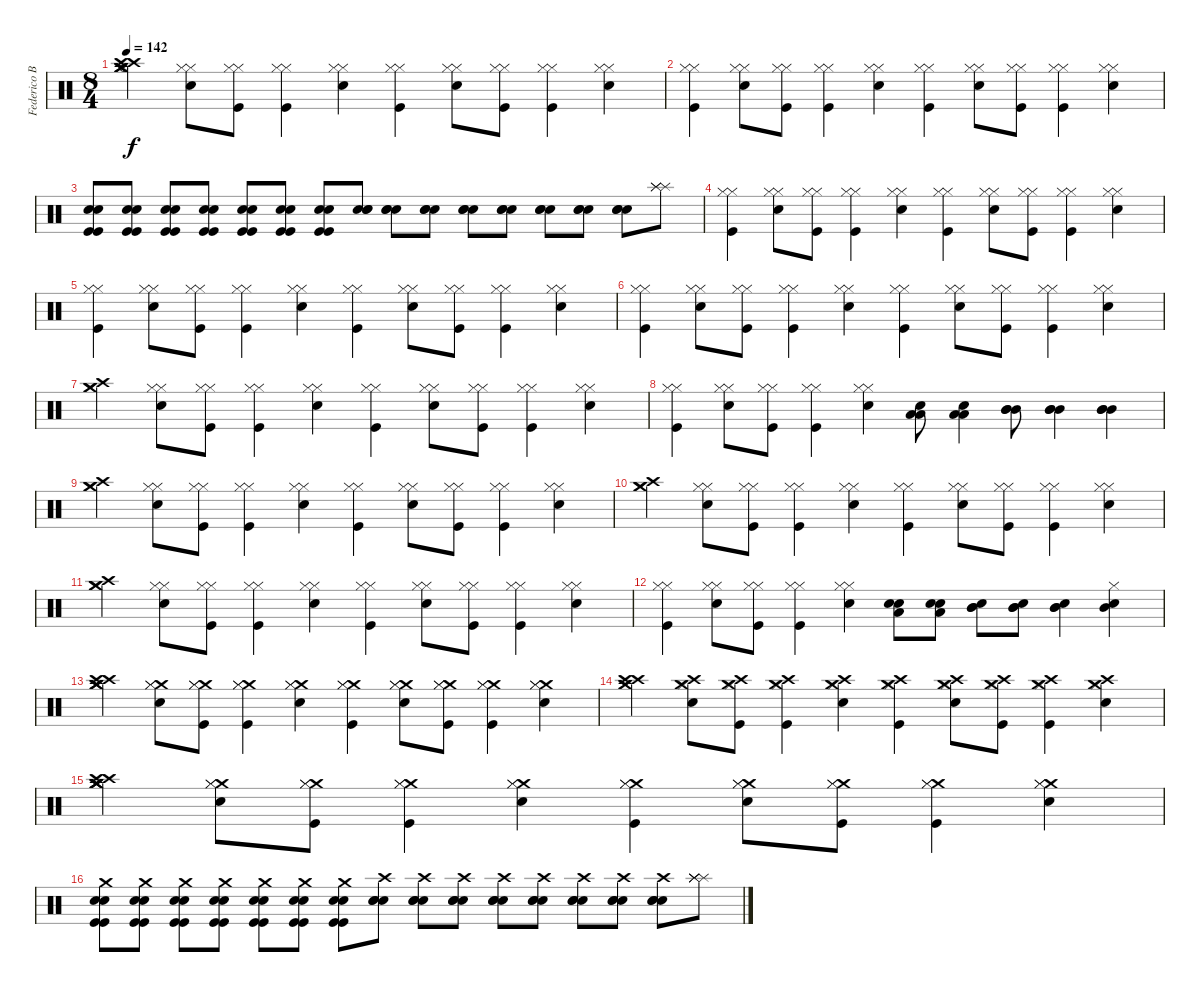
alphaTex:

\track ("Federico Bogliaccino-Drums" "Federico B") {instrument percussion}
\staff {score}
\articulation defaults
\ts (8 4)
\tempo 142
\clef neutral
\ks c
("Crash high (hit)" "Crash medium (hit)" "Crash medium (hit)" "Crash medium (hit)" "Crash high (hit)" "Hi-Hat (open)").4{dy f} ("Hi-Hat (closed)" "Hi-Hat (closed)" "Snare (hit) 2").8 ("Hi-Hat (closed)" "Hi-Hat (closed)" "Kick (hit)").8 ("Hi-Hat (closed)" "Hi-Hat (closed)" "Kick (hit)").4 ("Hi-Hat (closed)" "Hi-Hat (closed)" "Snare (hit) 2").4 ("Hi-Hat (closed)" "Hi-Hat (closed)" "Kick (hit)").4 ("Hi-Hat (closed)" "Hi-Hat (closed)" "Snare (hit) 2").8 ("Hi-Hat (closed)" "Hi-Hat (closed)" "Kick (hit)").8 ("Hi-Hat (closed)" "Hi-Hat (closed)" "Kick (hit)").4 ("Hi-Hat (closed)" "Hi-Hat (closed)" "Snare (hit) 2").4 |
("Hi-Hat (closed)" "Hi-Hat (closed)" "Kick (hit)").4 ("Hi-Hat (closed)" "Hi-Hat (closed)" "Snare (hit) 2").8 ("Hi-Hat (closed)" "Hi-Hat (closed)" "Kick (hit)").8 ("Hi-Hat (closed)" "Hi-Hat (closed)" "Kick (hit)").4 ("Hi-Hat (closed)" "Hi-Hat (closed)" "Snare (hit) 2").4 ("Hi-Hat (closed)" "Hi-Hat (closed)" "Kick (hit)").4 ("Hi-Hat (closed)" "Hi-Hat (closed)" "Snare (hit) 2").8 ("Hi-Hat (closed)" "Hi-Hat (closed)" "Kick (hit)").8 ("Hi-Hat (closed)" "Hi-Hat (closed)" "Kick (hit)").4 ("Hi-Hat (closed)" "Hi-Hat (closed)" "Snare (hit) 2").4 |
("Kick (hit)" "Kick (hit)" "Snare (hit) 2" "Snare (hit) 2").8 ("Kick (hit)" "Kick (hit)" "Snare (hit) 2" "Snare (hit) 2").8 ("Kick (hit)" "Kick (hit)" "Snare (hit) 2" "Snare (hit) 2").8 ("Kick (hit)" "Kick (hit)" "Snare (hit) 2" "Snare (hit) 2").8 ("Kick (hit)" "Kick (hit)" "Snare (hit) 2" "Snare (hit) 2").8 ("Kick (hit)" "Kick (hit)" "Snare (hit) 2" "Snare (hit) 2").8 ("Kick (hit)" "Kick (hit)" "Snare (hit) 2" "Snare (hit) 2").8 ("Hand Clap (hit)" "Snare (hit) 2" "Snare (hit) 2").8 ("Hand Clap (hit)" "Snare (hit) 2" "Snare (hit) 2").8 ("Hand Clap (hit)" "Snare (hit) 2" "Snare (hit) 2").8 ("Hand Clap (hit)" "Snare (hit) 2" "Snare (hit) 2").8 ("Hand Clap (hit)" "Snare (hit) 2" "Snare (hit) 2").8 ("Hand Clap (hit)" "Snare (hit) 2" "Snare (hit) 2").8 ("Hand Clap (hit)" "Snare (hit) 2" "Snare (hit) 2").8 ("Hand Clap (hit)" "Snare (hit) 2" "Snare (hit) 2").8 ("Splash (hit)" "Splash (hit)" "Splash (hit)").8 |
("Hi-Hat (closed)" "Hi-Hat (closed)" "Kick (hit)").4 ("Hi-Hat (closed)" "Hi-Hat (closed)" "Snare (hit) 2").8 ("Hi-Hat (closed)" "Hi-Hat (closed)" "Kick (hit)").8 ("Hi-Hat (closed)" "Hi-Hat (closed)" "Kick (hit)").4 ("Hi-Hat (closed)" "Hi-Hat (closed)" "Snare (hit) 2").4 ("Hi-Hat (closed)" "Hi-Hat (closed)" "Kick (hit)").4 ("Hi-Hat (closed)" "Hi-Hat (closed)" "Snare (hit) 2").8 ("Hi-Hat (closed)" "Hi-Hat (closed)" "Kick (hit)").8 ("Hi-Hat (closed)" "Hi-Hat (closed)" "Kick (hit)").4 ("Hi-Hat (closed)" "Hi-Hat (closed)" "Snare (hit) 2").4 |
("Hi-Hat (closed)" "Hi-Hat (closed)" "Kick (hit)").4 ("Hi-Hat (closed)" "Hi-Hat (closed)" "Snare (hit) 2").8 ("Hi-Hat (closed)" "Hi-Hat (closed)" "Kick (hit)").8 ("Hi-Hat (closed)" "Hi-Hat (closed)" "Kick (hit)").4 ("Hi-Hat (closed)" "Hi-Hat (closed)" "Snare (hit) 2").4 ("Hi-Hat (closed)" "Hi-Hat (closed)" "Kick (hit)").4 ("Hi-Hat (closed)" "Hi-Hat (closed)" "Snare (hit) 2").8 ("Hi-Hat (closed)" "Hi-Hat (closed)" "Kick (hit)").8 ("Hi-Hat (closed)" "Hi-Hat (closed)" "Kick (hit)").4 ("Hi-Hat (closed)" "Hi-Hat (closed)" "Snare (hit) 2").4 |
("Hi-Hat (closed)" "Hi-Hat (closed)" "Kick (hit)").4 ("Hi-Hat (closed)" "Hi-Hat (closed)" "Snare (hit) 2").8 ("Hi-Hat (closed)" "Hi-Hat (closed)" "Kick (hit)").8 ("Hi-Hat (closed)" "Hi-Hat (closed)" "Kick (hit)").4 ("Hi-Hat (closed)" "Hi-Hat (closed)" "Snare (hit) 2").4 ("Hi-Hat (closed)" "Hi-Hat (closed)" "Kick (hit)").4 ("Hi-Hat (closed)" "Hi-Hat (closed)" "Snare (hit) 2").8 ("Hi-Hat (closed)" "Hi-Hat (closed)" "Kick (hit)").8 ("Hi-Hat (closed)" "Hi-Hat (closed)" "Kick (hit)").4 ("Hi-Hat (closed)" "Hi-Hat (closed)" "Snare (hit) 2").4 |
("Crash high (hit)" "Crash medium (hit)" "Crash medium (hit)").4 ("Hi-Hat (closed)" "Hi-Hat (closed)" "Snare (hit) 2").8 ("Hi-Hat (closed)" "Hi-Hat (closed)" "Kick (hit)").8 ("Hi-Hat (closed)" "Hi-Hat (closed)" "Kick (hit)").4 ("Hi-Hat (closed)" "Hi-Hat (closed)" "Snare (hit) 2").4 ("Hi-Hat (closed)" "Hi-Hat (closed)" "Kick (hit)").4 ("Hi-Hat (closed)" "Hi-Hat (closed)" "Snare (hit) 2").8 ("Hi-Hat (closed)" "Hi-Hat (closed)" "Kick (hit)").8 ("Hi-Hat (closed)" "Hi-Hat (closed)" "Kick (hit)").4 ("Hi-Hat (closed)" "Hi-Hat (closed)" "Snare (hit) 2").4 |
("Hi-Hat (closed)" "Hi-Hat (closed)" "Kick (hit)").4 ("Hi-Hat (closed)" "Hi-Hat (closed)" "Snare (hit) 2").8 ("Hi-Hat (closed)" "Hi-Hat (closed)" "Kick (hit)").8 ("Hi-Hat (closed)" "Hi-Hat (closed)" "Kick (hit)").4 ("Hi-Hat (closed)" "Hi-Hat (closed)" "Snare (hit) 2").4 ("Snare (hit) 2" "Low Floor Tom (hit)" "Low Floor Tom (hit)").8 ("Snare (hit) 2" "Low Floor Tom (hit)" "Low Floor Tom (hit)").4 ("Mid Tom (hit)" "Mid Tom (hit)" "Mid Tom (hit)").8 ("Mid Tom (hit)" "Mid Tom (hit)" "Mid Tom (hit)").4 ("Mid Tom (hit)" "Mid Tom (hit)" "Mid Tom (hit)").4 |
("Crash high (hit)" "Crash medium (hit)" "Crash medium (hit)").4 ("Hi-Hat (closed)" "Hi-Hat (closed)" "Snare (hit) 2").8 ("Hi-Hat (closed)" "Hi-Hat (closed)" "Kick (hit)").8 ("Hi-Hat (closed)" "Hi-Hat (closed)" "Kick (hit)").4 ("Hi-Hat (closed)" "Hi-Hat (closed)" "Snare (hit) 2").4 ("Hi-Hat (closed)" "Hi-Hat (closed)" "Kick (hit)").4 ("Hi-Hat (closed)" "Hi-Hat (closed)" "Snare (hit) 2").8 ("Hi-Hat (closed)" "Hi-Hat (closed)" "Kick (hit)").8 ("Hi-Hat (closed)" "Hi-Hat (closed)" "Kick (hit)").4 ("Hi-Hat (closed)" "Hi-Hat (closed)" "Snare (hit) 2").4 |
("Crash high (hit)" "Crash medium (hit)" "Crash medium (hit)").4 ("Hi-Hat (closed)" "Hi-Hat (closed)" "Snare (hit) 2").8 ("Hi-Hat (closed)" "Hi-Hat (closed)" "Kick (hit)").8 ("Hi-Hat (closed)" "Hi-Hat (closed)" "Kick (hit)").4 ("Hi-Hat (closed)" "Hi-Hat (closed)" "Snare (hit) 2").4 ("Hi-Hat (closed)" "Hi-Hat (closed)" "Kick (hit)").4 ("Hi-Hat (closed)" "Hi-Hat (closed)" "Snare (hit) 2").8 ("Hi-Hat (closed)" "Hi-Hat (closed)" "Kick (hit)").8 ("Hi-Hat (closed)" "Hi-Hat (closed)" "Kick (hit)").4 ("Hi-Hat (closed)" "Hi-Hat (closed)" "Snare (hit) 2").4 |
("Crash high (hit)" "Crash medium (hit)" "Crash medium (hit)").4 ("Hi-Hat (closed)" "Hi-Hat (closed)" "Snare (hit) 2").8 ("Hi-Hat (closed)" "Hi-Hat (closed)" "Kick (hit)").8 ("Hi-Hat (closed)" "Hi-Hat (closed)" "Kick (hit)").4 ("Hi-Hat (closed)" "Hi-Hat (closed)" "Snare (hit) 2").4 ("Hi-Hat (closed)" "Hi-Hat (closed)" "Kick (hit)").4 ("Hi-Hat (closed)" "Hi-Hat (closed)" "Snare (hit) 2").8 ("Hi-Hat (closed)" "Hi-Hat (closed)" "Kick (hit)").8 ("Hi-Hat (closed)" "Hi-Hat (closed)" "Kick (hit)").4 ("Hi-Hat (closed)" "Hi-Hat (closed)" "Snare (hit) 2").4 |
("Hi-Hat (closed)" "Hi-Hat (closed)" "Kick (hit)").4 ("Hi-Hat (closed)" "Hi-Hat (closed)" "Snare (hit) 2").8 ("Hi-Hat (closed)" "Hi-Hat (closed)" "Kick (hit)").8 ("Hi-Hat (closed)" "Hi-Hat (closed)" "Kick (hit)").4 ("Hi-Hat (closed)" "Hi-Hat (closed)" "Snare (hit) 2").4 ("Snare (hit) 2" "Low Floor Tom (hit)" "Snare (hit) 2").8 ("Snare (hit) 2" "Low Floor Tom (hit)" "Snare (hit) 2").8 ("Mid Tom (hit)" "Mid Tom (hit)" "Snare (hit) 2").8 ("Mid Tom (hit)" "Mid Tom (hit)" "Snare (hit) 2").8 ("Mid Tom (hit)" "Mid Tom (hit)" "Snare (hit) 2").4 ("Hi-Hat (closed)" "Mid Tom (hit)" "Snare (hit) 2").4 |
("Crash high (hit)" "Crash medium (hit)" "Crash medium (hit)" "Crash medium (hit)" "Crash high (hit)").4 ("Crash medium (hit)" "Hi-Hat (closed)" "Hi-Hat (closed)" "Snare (hit) 2").8 ("Crash medium (hit)" "Hi-Hat (closed)" "Hi-Hat (closed)" "Kick (hit)").8 ("Crash medium (hit)" "Hi-Hat (closed)" "Hi-Hat (closed)" "Kick (hit)").4 ("Crash medium (hit)" "Hi-Hat (closed)" "Hi-Hat (closed)" "Snare (hit) 2").4 ("Crash medium (hit)" "Hi-Hat (closed)" "Hi-Hat (closed)" "Kick (hit)").4 ("Crash medium (hit)" "Hi-Hat (closed)" "Hi-Hat (closed)" "Snare (hit) 2").8 ("Crash medium (hit)" "Hi-Hat (closed)" "Hi-Hat (closed)" "Kick (hit)").8 ("Crash medium (hit)" "Hi-Hat (closed)" "Hi-Hat (closed)" "Kick (hit)").4 ("Crash medium (hit)" "Hi-Hat (closed)" "Hi-Hat (closed)" "Snare (hit) 2").4 |
("Crash high (hit)" "Crash high (hit)" "Crash medium (hit)" "Crash medium (hit)").4 ("Crash high (hit)" "Crash medium (hit)" "Hi-Hat (closed)" "Snare (hit) 2").8 ("Crash high (hit)" "Crash medium (hit)" "Hi-Hat (closed)" "Kick (hit)").8 ("Crash high (hit)" "Crash medium (hit)" "Hi-Hat (closed)" "Kick (hit)").4 ("Crash high (hit)" "Crash medium (hit)" "Hi-Hat (closed)" "Snare (hit) 2").4 ("Crash high (hit)" "Crash medium (hit)" "Hi-Hat (closed)" "Kick (hit)").4 ("Crash high (hit)" "Crash medium (hit)" "Hi-Hat (closed)" "Snare (hit) 2").8 ("Crash high (hit)" "Crash medium (hit)" "Hi-Hat (closed)" "Kick (hit)").8 ("Crash high (hit)" "Crash medium (hit)" "Hi-Hat (closed)" "Kick (hit)").4 ("Crash high (hit)" "Crash medium (hit)" "Hi-Hat (closed)" "Snare (hit) 2").4 |
("Crash high (hit)" "Crash high (hit)" "Crash medium (hit)" "Crash medium (hit)" "Crash medium (hit)" "Crash medium (hit)").4 ("Crash medium (hit)" "Hi-Hat (closed)" "Hi-Hat (closed)" "Snare (hit) 2").8 ("Crash medium (hit)" "Hi-Hat (closed)" "Hi-Hat (closed)" "Kick (hit)").8 ("Crash medium (hit)" "Hi-Hat (closed)" "Hi-Hat (closed)" "Kick (hit)").4 ("Crash medium (hit)" "Hi-Hat (closed)" "Hi-Hat (closed)" "Snare (hit) 2").4 ("Crash medium (hit)" "Hi-Hat (closed)" "Hi-Hat (closed)" "Kick (hit)").4 ("Crash medium (hit)" "Hi-Hat (closed)" "Hi-Hat (closed)" "Snare (hit) 2").8 ("Crash medium (hit)" "Hi-Hat (closed)" "Hi-Hat (closed)" "Kick (hit)").8 ("Crash medium (hit)" "Hi-Hat (closed)" "Hi-Hat (closed)" "Kick (hit)").4 ("Crash medium (hit)" "Hi-Hat (closed)" "Hi-Hat (closed)" "Snare (hit) 2").4 |
("Crash medium (hit)" "Kick (hit)" "Kick (hit)" "Snare (hit) 2" "Snare (hit) 2").8 ("Crash medium (hit)" "Kick (hit)" "Kick (hit)" "Snare (hit) 2" "Snare (hit) 2").8 ("Crash medium (hit)" "Kick (hit)" "Kick (hit)" "Snare (hit) 2" "Snare (hit) 2").8 ("Crash medium (hit)" "Kick (hit)" "Kick (hit)" "Snare (hit) 2" "Snare (hit) 2").8 ("Crash medium (hit)" "Kick (hit)" "Kick (hit)" "Snare (hit) 2" "Snare (hit) 2").8 ("Crash medium (hit)" "Kick (hit)" "Kick (hit)" "Snare (hit) 2" "Snare (hit) 2").8 ("Crash medium (hit)" "Kick (hit)" "Kick (hit)" "Snare (hit) 2" "Snare (hit) 2").8 ("Crash high (hit)" "Hand Clap (hit)" "Snare (hit) 2" "Snare (hit) 2").8 ("Crash high (hit)" "Hand Clap (hit)" "Snare (hit) 2" "Snare (hit) 2").8 ("Crash high (hit)" "Hand Clap (hit)" "Snare (hit) 2" "Snare (hit) 2").8 ("Crash high (hit)" "Hand Clap (hit)" "Snare (hit) 2" "Snare (hit) 2").8 ("Crash high (hit)" "Hand Clap (hit)" "Snare (hit) 2" "Snare (hit) 2").8 ("Crash high (hit)" "Hand Clap (hit)" "Snare (hit) 2" "Snare (hit) 2").8 ("Crash high (hit)" "Hand Clap (hit)" "Snare (hit) 2" "Snare (hit) 2").8 ("Crash high (hit)" "Hand Clap (hit)" "Snare (hit) 2" "Snare (hit) 2").8 ("Splash (hit)" "Splash (hit)" "Splash (hit)" "Splash (hit)").8
